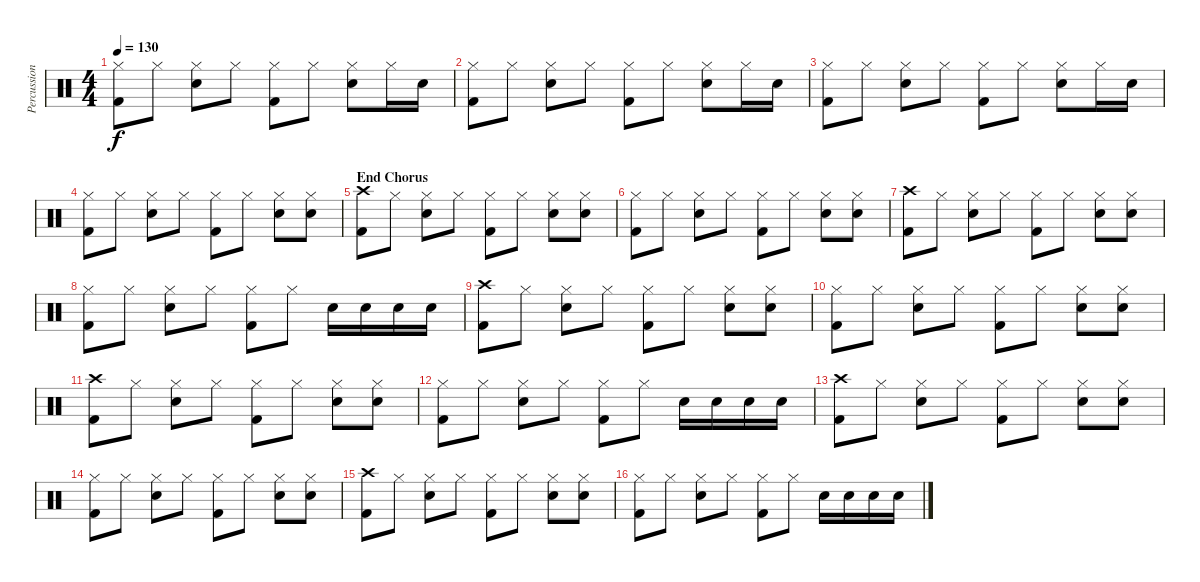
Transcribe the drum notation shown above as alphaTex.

\track ("Percussion" "Percussion") {instrument percussion}
\staff {score}
\articulation defaults
\ts (4 4)
\tempo 130
\clef neutral
\ks c
("Hi-Hat (closed)" "Kick (hit) 2").8{dy f} "Hi-Hat (closed)".8 ("Hi-Hat (closed)" "Electric Snare (hit)").8 "Hi-Hat (closed)".8 ("Hi-Hat (closed)" "Kick (hit) 2").8 "Hi-Hat (closed)".8 ("Hi-Hat (closed)" "Electric Snare (hit)").8 "Hi-Hat (closed)".16 "Electric Snare (hit)".16 |
("Hi-Hat (closed)" "Kick (hit) 2").8 "Hi-Hat (closed)".8 ("Hi-Hat (closed)" "Electric Snare (hit)").8 "Hi-Hat (closed)".8 ("Hi-Hat (closed)" "Kick (hit) 2").8 "Hi-Hat (closed)".8 ("Hi-Hat (closed)" "Electric Snare (hit)").8 "Hi-Hat (closed)".16 "Electric Snare (hit)".16 |
("Hi-Hat (closed)" "Kick (hit) 2").8 "Hi-Hat (closed)".8 ("Hi-Hat (closed)" "Electric Snare (hit)").8 "Hi-Hat (closed)".8 ("Hi-Hat (closed)" "Kick (hit) 2").8 "Hi-Hat (closed)".8 ("Hi-Hat (closed)" "Electric Snare (hit)").8 "Hi-Hat (closed)".16 "Electric Snare (hit)".16 |
("Hi-Hat (closed)" "Kick (hit) 2").8 "Hi-Hat (closed)".8 ("Hi-Hat (closed)" "Electric Snare (hit)").8 "Hi-Hat (closed)".8 ("Hi-Hat (closed)" "Kick (hit) 2").8 "Hi-Hat (closed)".8 ("Hi-Hat (closed)" "Electric Snare (hit)").8 ("Hi-Hat (closed)" "Electric Snare (hit)").8 |
\section ("" "End Chorus")
("Crash high (hit)" "Kick (hit) 2").8 "Hi-Hat (closed)".8 ("Hi-Hat (closed)" "Electric Snare (hit)").8 "Hi-Hat (closed)".8 ("Hi-Hat (closed)" "Kick (hit) 2").8 "Hi-Hat (closed)".8 ("Hi-Hat (closed)" "Electric Snare (hit)").8 ("Hi-Hat (closed)" "Electric Snare (hit)").8 |
("Hi-Hat (closed)" "Kick (hit) 2").8 "Hi-Hat (closed)".8 ("Hi-Hat (closed)" "Electric Snare (hit)").8 "Hi-Hat (closed)".8 ("Hi-Hat (closed)" "Kick (hit) 2").8 "Hi-Hat (closed)".8 ("Hi-Hat (closed)" "Electric Snare (hit)").8 ("Hi-Hat (closed)" "Electric Snare (hit)").8 |
("Crash high (hit)" "Kick (hit) 2").8 "Hi-Hat (closed)".8 ("Hi-Hat (closed)" "Electric Snare (hit)").8 "Hi-Hat (closed)".8 ("Hi-Hat (closed)" "Kick (hit) 2").8 "Hi-Hat (closed)".8 ("Hi-Hat (closed)" "Electric Snare (hit)").8 ("Hi-Hat (closed)" "Electric Snare (hit)").8 |
("Hi-Hat (closed)" "Kick (hit) 2").8 "Hi-Hat (closed)".8 ("Hi-Hat (closed)" "Electric Snare (hit)").8 "Hi-Hat (closed)".8 ("Hi-Hat (closed)" "Kick (hit) 2").8 "Hi-Hat (closed)".8 "Electric Snare (hit)".16 "Electric Snare (hit)".16 "Electric Snare (hit)".16 "Electric Snare (hit)".16 |
("Crash high (hit)" "Kick (hit) 2").8 "Hi-Hat (closed)".8 ("Hi-Hat (closed)" "Electric Snare (hit)").8 "Hi-Hat (closed)".8 ("Hi-Hat (closed)" "Kick (hit) 2").8 "Hi-Hat (closed)".8 ("Hi-Hat (closed)" "Electric Snare (hit)").8 ("Hi-Hat (closed)" "Electric Snare (hit)").8 |
("Hi-Hat (closed)" "Kick (hit) 2").8 "Hi-Hat (closed)".8 ("Hi-Hat (closed)" "Electric Snare (hit)").8 "Hi-Hat (closed)".8 ("Hi-Hat (closed)" "Kick (hit) 2").8 "Hi-Hat (closed)".8 ("Hi-Hat (closed)" "Electric Snare (hit)").8 ("Hi-Hat (closed)" "Electric Snare (hit)").8 |
("Crash high (hit)" "Kick (hit) 2").8 "Hi-Hat (closed)".8 ("Hi-Hat (closed)" "Electric Snare (hit)").8 "Hi-Hat (closed)".8 ("Hi-Hat (closed)" "Kick (hit) 2").8 "Hi-Hat (closed)".8 ("Hi-Hat (closed)" "Electric Snare (hit)").8 ("Hi-Hat (closed)" "Electric Snare (hit)").8 |
("Hi-Hat (closed)" "Kick (hit) 2").8 "Hi-Hat (closed)".8 ("Hi-Hat (closed)" "Electric Snare (hit)").8 "Hi-Hat (closed)".8 ("Hi-Hat (closed)" "Kick (hit) 2").8 "Hi-Hat (closed)".8 "Electric Snare (hit)".16 "Electric Snare (hit)".16 "Electric Snare (hit)".16 "Electric Snare (hit)".16 |
("Crash high (hit)" "Kick (hit) 2").8 "Hi-Hat (closed)".8 ("Hi-Hat (closed)" "Electric Snare (hit)").8 "Hi-Hat (closed)".8 ("Hi-Hat (closed)" "Kick (hit) 2").8 "Hi-Hat (closed)".8 ("Hi-Hat (closed)" "Electric Snare (hit)").8 ("Hi-Hat (closed)" "Electric Snare (hit)").8 |
("Hi-Hat (closed)" "Kick (hit) 2").8 "Hi-Hat (closed)".8 ("Hi-Hat (closed)" "Electric Snare (hit)").8 "Hi-Hat (closed)".8 ("Hi-Hat (closed)" "Kick (hit) 2").8 "Hi-Hat (closed)".8 ("Hi-Hat (closed)" "Electric Snare (hit)").8 ("Hi-Hat (closed)" "Electric Snare (hit)").8 |
("Crash high (hit)" "Kick (hit) 2").8 "Hi-Hat (closed)".8 ("Hi-Hat (closed)" "Electric Snare (hit)").8 "Hi-Hat (closed)".8 ("Hi-Hat (closed)" "Kick (hit) 2").8 "Hi-Hat (closed)".8 ("Hi-Hat (closed)" "Electric Snare (hit)").8 ("Hi-Hat (closed)" "Electric Snare (hit)").8 |
("Hi-Hat (closed)" "Kick (hit) 2").8 "Hi-Hat (closed)".8 ("Hi-Hat (closed)" "Electric Snare (hit)").8 "Hi-Hat (closed)".8 ("Hi-Hat (closed)" "Kick (hit) 2").8 "Hi-Hat (closed)".8 "Electric Snare (hit)".16 "Electric Snare (hit)".16 "Electric Snare (hit)".16 "Electric Snare (hit)".16
